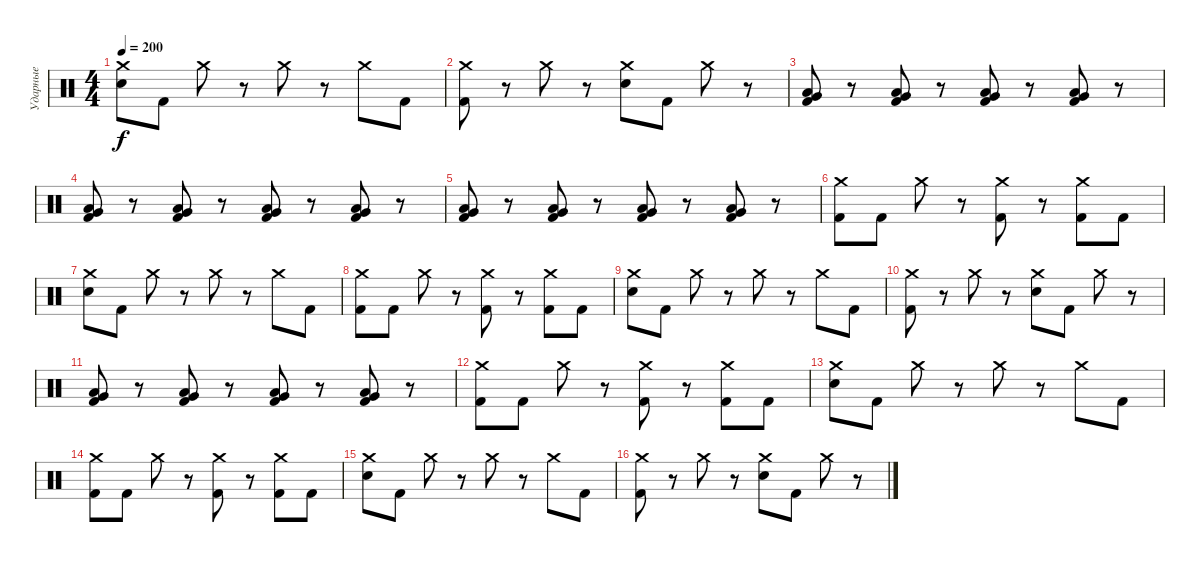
\track ("Ударные" "Ударные") {instrument percussion}
\staff {score}
\articulation defaults
\ts (4 4)
\tempo 200
\clef neutral
\ks c
("Crash medium (hit)" "Electric Snare (hit)").8{dy f} "Kick (hit) 2".8 "Crash medium (hit)".8 r.8 "Crash medium (hit)".8 r.8 "Crash medium (hit)".8 "Kick (hit) 2".8 |
("Crash medium (hit)" "Kick (hit) 2").8 r.8 "Crash medium (hit)".8 r.8 ("Crash medium (hit)" "Electric Snare (hit)").8 "Kick (hit) 2".8 "Crash medium (hit)".8 r.8 |
("Low Floor Tom (hit)" "Very Low Tom (hit)" "Kick (hit) 2").8 r.8 ("Low Floor Tom (hit)" "Very Low Tom (hit)" "Kick (hit) 2").8 r.8 ("Low Floor Tom (hit)" "Very Low Tom (hit)" "Kick (hit) 2").8 r.8 ("Low Floor Tom (hit)" "Very Low Tom (hit)" "Kick (hit) 2").8 r.8 |
("Low Floor Tom (hit)" "Very Low Tom (hit)" "Kick (hit) 2").8 r.8 ("Low Floor Tom (hit)" "Very Low Tom (hit)" "Kick (hit) 2").8 r.8 ("Low Floor Tom (hit)" "Very Low Tom (hit)" "Kick (hit) 2").8 r.8 ("Low Floor Tom (hit)" "Very Low Tom (hit)" "Kick (hit) 2").8 r.8 |
("Low Floor Tom (hit)" "Very Low Tom (hit)" "Kick (hit) 2").8 r.8 ("Low Floor Tom (hit)" "Very Low Tom (hit)" "Kick (hit) 2").8 r.8 ("Low Floor Tom (hit)" "Very Low Tom (hit)" "Kick (hit) 2").8 r.8 ("Low Floor Tom (hit)" "Very Low Tom (hit)" "Kick (hit) 2").8 r.8 |
("Crash medium (hit)" "Kick (hit) 2").8 "Kick (hit) 2".8 "Crash medium (hit)".8 r.8 ("Crash medium (hit)" "Kick (hit) 2").8 r.8 ("Crash medium (hit)" "Kick (hit) 2").8 "Kick (hit) 2".8 |
("Crash medium (hit)" "Electric Snare (hit)").8 "Kick (hit) 2".8 "Crash medium (hit)".8 r.8 "Crash medium (hit)".8 r.8 "Crash medium (hit)".8 "Kick (hit) 2".8 |
("Crash medium (hit)" "Kick (hit) 2").8 "Kick (hit) 2".8 "Crash medium (hit)".8 r.8 ("Crash medium (hit)" "Kick (hit) 2").8 r.8 ("Crash medium (hit)" "Kick (hit) 2").8 "Kick (hit) 2".8 |
("Crash medium (hit)" "Electric Snare (hit)").8 "Kick (hit) 2".8 "Crash medium (hit)".8 r.8 "Crash medium (hit)".8 r.8 "Crash medium (hit)".8 "Kick (hit) 2".8 |
("Crash medium (hit)" "Kick (hit) 2").8 r.8 "Crash medium (hit)".8 r.8 ("Crash medium (hit)" "Electric Snare (hit)").8 "Kick (hit) 2".8 "Crash medium (hit)".8 r.8 |
("Low Floor Tom (hit)" "Very Low Tom (hit)" "Kick (hit) 2").8 r.8 ("Low Floor Tom (hit)" "Very Low Tom (hit)" "Kick (hit) 2").8 r.8 ("Low Floor Tom (hit)" "Very Low Tom (hit)" "Kick (hit) 2").8 r.8 ("Low Floor Tom (hit)" "Very Low Tom (hit)" "Kick (hit) 2").8 r.8 |
("Crash medium (hit)" "Kick (hit) 2").8 "Kick (hit) 2".8 "Crash medium (hit)".8 r.8 ("Crash medium (hit)" "Kick (hit) 2").8 r.8 ("Crash medium (hit)" "Kick (hit) 2").8 "Kick (hit) 2".8 |
("Crash medium (hit)" "Electric Snare (hit)").8 "Kick (hit) 2".8 "Crash medium (hit)".8 r.8 "Crash medium (hit)".8 r.8 "Crash medium (hit)".8 "Kick (hit) 2".8 |
("Crash medium (hit)" "Kick (hit) 2").8 "Kick (hit) 2".8 "Crash medium (hit)".8 r.8 ("Crash medium (hit)" "Kick (hit) 2").8 r.8 ("Crash medium (hit)" "Kick (hit) 2").8 "Kick (hit) 2".8 |
("Crash medium (hit)" "Electric Snare (hit)").8 "Kick (hit) 2".8 "Crash medium (hit)".8 r.8 "Crash medium (hit)".8 r.8 "Crash medium (hit)".8 "Kick (hit) 2".8 |
("Crash medium (hit)" "Kick (hit) 2").8 r.8 "Crash medium (hit)".8 r.8 ("Crash medium (hit)" "Electric Snare (hit)").8 "Kick (hit) 2".8 "Crash medium (hit)".8 r.8
